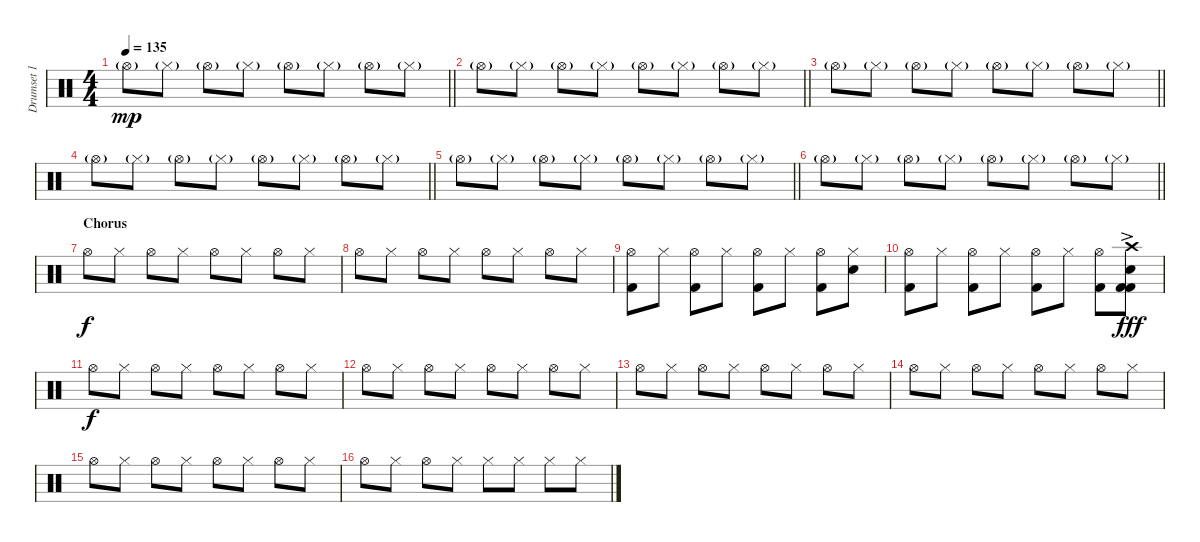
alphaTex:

\track ("Drumset 1" "Drumset 1") {instrument percussion}
\staff {score}
\articulation defaults
\ts (4 4)
\tempo 135
\clef neutral
\barLineRight lightlight
\ks c "Hi-Hat (open)"{g}.8{dy mp} "Hi-Hat (closed)"{g}.8 "Hi-Hat (open)"{g}.8 "Hi-Hat (closed)"{g}.8 "Hi-Hat (open)"{g}.8 "Hi-Hat (closed)"{g}.8 "Hi-Hat (open)"{g}.8 "Hi-Hat (closed)"{g}.8
|
\barLineRight lightlight "Hi-Hat (open)"{g}.8 "Hi-Hat (closed)"{g}.8 "Hi-Hat (open)"{g}.8 "Hi-Hat (closed)"{g}.8 "Hi-Hat (open)"{g}.8 "Hi-Hat (closed)"{g}.8 "Hi-Hat (open)"{g}.8 "Hi-Hat (closed)"{g}.8
|
\barLineRight lightlight "Hi-Hat (open)"{g}.8 "Hi-Hat (closed)"{g}.8 "Hi-Hat (open)"{g}.8 "Hi-Hat (closed)"{g}.8 "Hi-Hat (open)"{g}.8 "Hi-Hat (closed)"{g}.8 "Hi-Hat (open)"{g}.8 "Hi-Hat (closed)"{g}.8
|
\barLineRight lightlight "Hi-Hat (open)"{g}.8 "Hi-Hat (closed)"{g}.8 "Hi-Hat (open)"{g}.8 "Hi-Hat (closed)"{g}.8 "Hi-Hat (open)"{g}.8 "Hi-Hat (closed)"{g}.8 "Hi-Hat (open)"{g}.8 "Hi-Hat (closed)"{g}.8
|
\barLineRight lightlight "Hi-Hat (open)"{g}.8 "Hi-Hat (closed)"{g}.8 "Hi-Hat (open)"{g}.8 "Hi-Hat (closed)"{g}.8 "Hi-Hat (open)"{g}.8 "Hi-Hat (closed)"{g}.8 "Hi-Hat (open)"{g}.8 "Hi-Hat (closed)"{g}.8
|
\barLineRight lightlight "Hi-Hat (open)"{g}.8 "Hi-Hat (closed)"{g}.8 "Hi-Hat (open)"{g}.8 "Hi-Hat (closed)"{g}.8 "Hi-Hat (open)"{g}.8 "Hi-Hat (closed)"{g}.8 "Hi-Hat (open)"{g}.8 "Hi-Hat (closed)"{g}.8
|
\section ("" "Chorus")
"Hi-Hat (open)".8{dy f} "Hi-Hat (closed)".8 "Hi-Hat (open)".8 "Hi-Hat (closed)".8 "Hi-Hat (open)".8 "Hi-Hat (closed)".8 "Hi-Hat (open)".8 "Hi-Hat (closed)".8 |
"Hi-Hat (open)".8 "Hi-Hat (closed)".8 "Hi-Hat (open)".8 "Hi-Hat (closed)".8 "Hi-Hat (open)".8 "Hi-Hat (closed)".8 "Hi-Hat (open)".8 "Hi-Hat (closed)".8 |
("Hi-Hat (open)" "Kick (hit) 2").8 "Hi-Hat (closed)".8 ("Hi-Hat (open)" "Kick (hit) 2").8 "Hi-Hat (closed)".8 ("Hi-Hat (open)" "Kick (hit) 2").8 "Hi-Hat (closed)".8 ("Hi-Hat (open)" "Kick (hit) 2").8 ("Hi-Hat (closed)" "Electric Snare (hit)").8 |
("Hi-Hat (open)" "Kick (hit) 2").8 "Hi-Hat (closed)".8 ("Hi-Hat (open)" "Kick (hit) 2").8 "Hi-Hat (closed)".8 ("Hi-Hat (open)" "Kick (hit) 2").8 "Hi-Hat (closed)".8 ("Hi-Hat (open)" "Kick (hit) 2").8 ("Crash high (hit)"{ac} "Electric Snare (hit)"{ac} "Kick (hit) 2"{ac} "Kick (hit) 2"{ac}).8{dy fff} |
"Hi-Hat (open)".8{dy f} "Hi-Hat (closed)".8 "Hi-Hat (open)".8 "Hi-Hat (closed)".8 "Hi-Hat (open)".8 "Hi-Hat (closed)".8 "Hi-Hat (open)".8 "Hi-Hat (closed)".8 |
"Hi-Hat (open)".8 "Hi-Hat (closed)".8 "Hi-Hat (open)".8 "Hi-Hat (closed)".8 "Hi-Hat (open)".8 "Hi-Hat (closed)".8 "Hi-Hat (open)".8 "Hi-Hat (closed)".8 |
"Hi-Hat (open)".8 "Hi-Hat (closed)".8 "Hi-Hat (open)".8 "Hi-Hat (closed)".8 "Hi-Hat (open)".8 "Hi-Hat (closed)".8 "Hi-Hat (open)".8 "Hi-Hat (closed)".8 |
"Hi-Hat (open)".8 "Hi-Hat (closed)".8 "Hi-Hat (open)".8 "Hi-Hat (closed)".8 "Hi-Hat (open)".8 "Hi-Hat (closed)".8 "Hi-Hat (open)".8 "Hi-Hat (closed)".8 |
"Hi-Hat (open)".8 "Hi-Hat (closed)".8 "Hi-Hat (open)".8 "Hi-Hat (closed)".8 "Hi-Hat (open)".8 "Hi-Hat (closed)".8 "Hi-Hat (open)".8 "Hi-Hat (closed)".8 |
"Hi-Hat (open)".8 "Hi-Hat (closed)".8 "Hi-Hat (open)".8 "Hi-Hat (closed)".8 "Hi-Hat (closed)".8 "Hi-Hat (closed)".8 "Hi-Hat (closed)".8 "Hi-Hat (closed)".8
